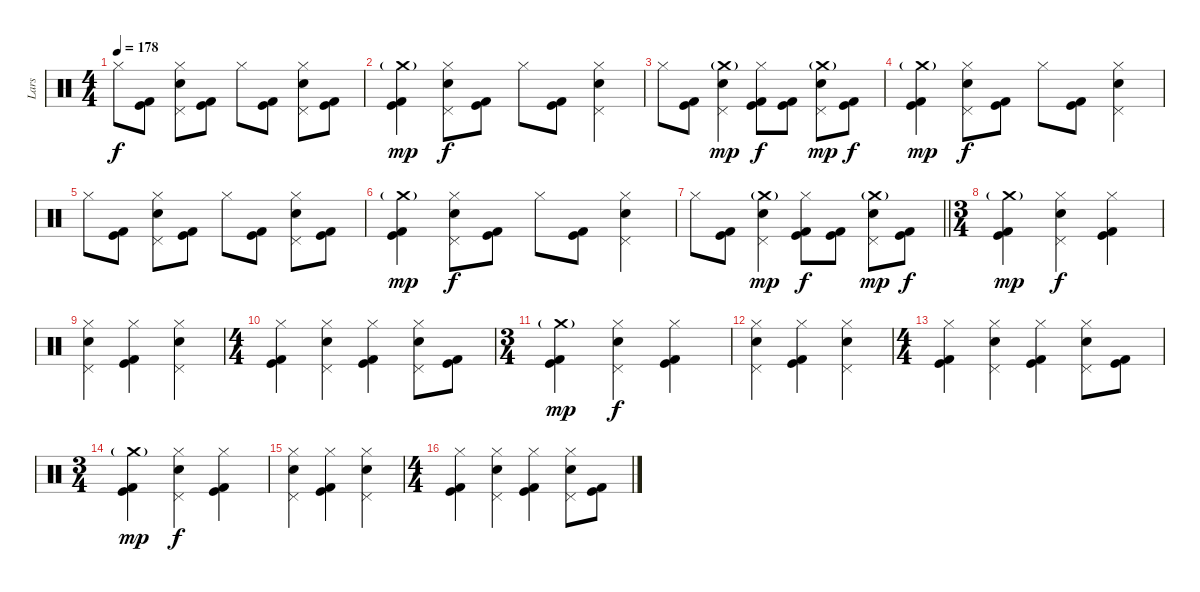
\track ("Lars" "Lars") {instrument percussion}
\staff {score}
\articulation defaults
\ts (4 4)
\tempo 178
\clef neutral
\ks c "Hi-Hat (closed)".8{dy f}
("Kick (hit)" "Kick (hit) 2").8 ("Hi-Hat (closed)" "Pedal Hi-Hat (hit)" "Electric Snare (hit)").8 ("Kick (hit)" "Kick (hit) 2").8 "Hi-Hat (closed)".8 ("Kick (hit)" "Kick (hit) 2").8 ("Hi-Hat (closed)" "Pedal Hi-Hat (hit)" "Electric Snare (hit)").8 ("Kick (hit)" "Kick (hit) 2").8 |
("Crash medium (hit)"{g} "Kick (hit)" "Kick (hit) 2").4{dy mp} ("Hi-Hat (closed)" "Pedal Hi-Hat (hit)" "Electric Snare (hit)").8{dy f} ("Kick (hit)" "Kick (hit) 2").8 "Hi-Hat (closed)".8 ("Kick (hit)" "Kick (hit) 2").8 ("Hi-Hat (closed)" "Pedal Hi-Hat (hit)" "Electric Snare (hit)").4 |
"Hi-Hat (closed)".8 ("Kick (hit)" "Kick (hit) 2").8 ("Crash medium (hit)"{g} "Pedal Hi-Hat (hit)" "Electric Snare (hit)").4{dy mp} ("Hi-Hat (closed)" "Kick (hit)" "Kick (hit) 2").8{dy f} ("Kick (hit)" "Kick (hit) 2").8 ("Crash medium (hit)"{g} "Pedal Hi-Hat (hit)" "Electric Snare (hit)").8{dy mp} ("Kick (hit)" "Kick (hit) 2").8{dy f} |
("Crash medium (hit)"{g} "Kick (hit)" "Kick (hit) 2").4{dy mp} ("Hi-Hat (closed)" "Pedal Hi-Hat (hit)" "Electric Snare (hit)").8{dy f} ("Kick (hit)" "Kick (hit) 2").8 "Hi-Hat (closed)".8 ("Kick (hit)" "Kick (hit) 2").8 ("Hi-Hat (closed)" "Pedal Hi-Hat (hit)" "Electric Snare (hit)").4 |
"Hi-Hat (closed)".8 ("Kick (hit)" "Kick (hit) 2").8 ("Hi-Hat (closed)" "Pedal Hi-Hat (hit)" "Electric Snare (hit)").8 ("Kick (hit)" "Kick (hit) 2").8 "Hi-Hat (closed)".8 ("Kick (hit)" "Kick (hit) 2").8 ("Hi-Hat (closed)" "Pedal Hi-Hat (hit)" "Electric Snare (hit)").8 ("Kick (hit)" "Kick (hit) 2").8 |
("Crash medium (hit)"{g} "Kick (hit)" "Kick (hit) 2").4{dy mp} ("Hi-Hat (closed)" "Pedal Hi-Hat (hit)" "Electric Snare (hit)").8{dy f} ("Kick (hit)" "Kick (hit) 2").8 "Hi-Hat (closed)".8 ("Kick (hit)" "Kick (hit) 2").8 ("Hi-Hat (closed)" "Pedal Hi-Hat (hit)" "Electric Snare (hit)").4 |
\barLineRight lightlight "Hi-Hat (closed)".8
("Kick (hit)" "Kick (hit) 2").8 ("Crash medium (hit)"{g} "Pedal Hi-Hat (hit)" "Electric Snare (hit)").4{dy mp} ("Hi-Hat (closed)" "Kick (hit)" "Kick (hit) 2").8{dy f} ("Kick (hit)" "Kick (hit) 2").8 ("Crash medium (hit)"{g} "Pedal Hi-Hat (hit)" "Electric Snare (hit)").8{dy mp} ("Kick (hit)" "Kick (hit) 2").8{dy f} |
\ts (3 4)
\section ("" "")
("Crash medium (hit)"{g} "Kick (hit)" "Kick (hit) 2").4{dy mp} ("Hi-Hat (closed)" "Pedal Hi-Hat (hit)" "Electric Snare (hit)").4{dy f} ("Hi-Hat (closed)" "Kick (hit)" "Kick (hit) 2").4 |
("Hi-Hat (closed)" "Pedal Hi-Hat (hit)" "Electric Snare (hit)").4 ("Hi-Hat (closed)" "Kick (hit)" "Kick (hit) 2").4 ("Hi-Hat (closed)" "Pedal Hi-Hat (hit)" "Electric Snare (hit)").4 |
\ts (4 4)
("Hi-Hat (closed)" "Kick (hit)" "Kick (hit) 2").4 ("Hi-Hat (closed)" "Pedal Hi-Hat (hit)" "Electric Snare (hit)").4 ("Hi-Hat (closed)" "Kick (hit)" "Kick (hit) 2").4 ("Hi-Hat (closed)" "Pedal Hi-Hat (hit)" "Electric Snare (hit)").8 ("Kick (hit)" "Kick (hit) 2").8 |
\ts (3 4)
("Crash medium (hit)"{g} "Kick (hit)" "Kick (hit) 2").4{dy mp} ("Hi-Hat (closed)" "Pedal Hi-Hat (hit)" "Electric Snare (hit)").4{dy f} ("Hi-Hat (closed)" "Kick (hit)" "Kick (hit) 2").4 |
("Hi-Hat (closed)" "Pedal Hi-Hat (hit)" "Electric Snare (hit)").4 ("Hi-Hat (closed)" "Kick (hit)" "Kick (hit) 2").4 ("Hi-Hat (closed)" "Pedal Hi-Hat (hit)" "Electric Snare (hit)").4 |
\ts (4 4)
("Hi-Hat (closed)" "Kick (hit)" "Kick (hit) 2").4 ("Hi-Hat (closed)" "Pedal Hi-Hat (hit)" "Electric Snare (hit)").4 ("Hi-Hat (closed)" "Kick (hit)" "Kick (hit) 2").4 ("Hi-Hat (closed)" "Pedal Hi-Hat (hit)" "Electric Snare (hit)").8 ("Kick (hit)" "Kick (hit) 2").8 |
\ts (3 4)
("Crash medium (hit)"{g} "Kick (hit)" "Kick (hit) 2").4{dy mp} ("Hi-Hat (closed)" "Pedal Hi-Hat (hit)" "Electric Snare (hit)").4{dy f} ("Hi-Hat (closed)" "Kick (hit)" "Kick (hit) 2").4 |
("Hi-Hat (closed)" "Pedal Hi-Hat (hit)" "Electric Snare (hit)").4 ("Hi-Hat (closed)" "Kick (hit)" "Kick (hit) 2").4 ("Hi-Hat (closed)" "Pedal Hi-Hat (hit)" "Electric Snare (hit)").4 |
\ts (4 4)
("Hi-Hat (closed)" "Kick (hit)" "Kick (hit) 2").4 ("Hi-Hat (closed)" "Pedal Hi-Hat (hit)" "Electric Snare (hit)").4 ("Hi-Hat (closed)" "Kick (hit)" "Kick (hit) 2").4 ("Hi-Hat (closed)" "Pedal Hi-Hat (hit)" "Electric Snare (hit)").8 ("Kick (hit)" "Kick (hit) 2").8
